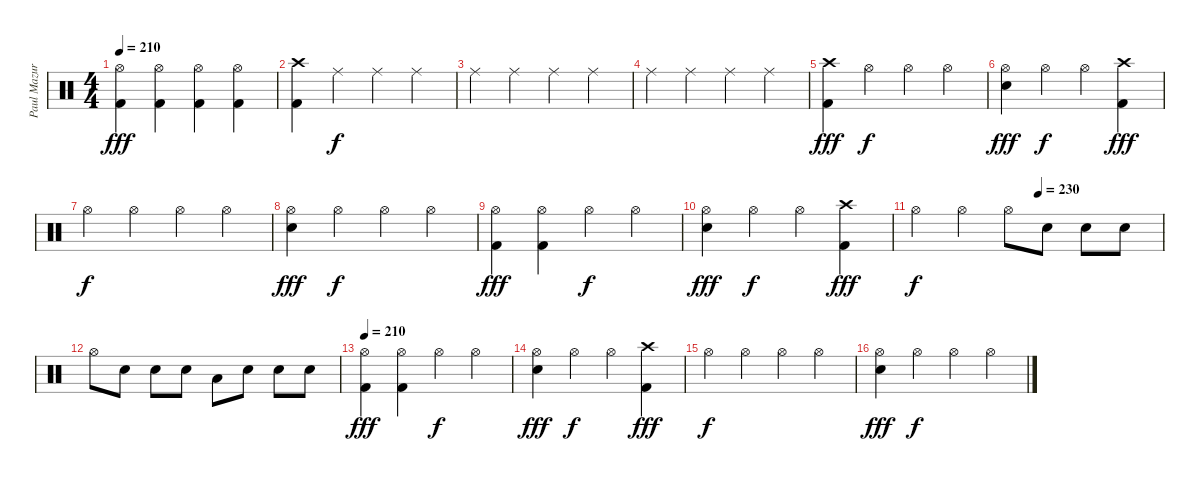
\track ("Paul Mazurkiewicz" "Paul Mazur") {instrument percussion}
\staff {score}
\articulation defaults
\ts (4 4)
\tempo 210
\clef neutral
\ks c
("Hi-Hat (open)" "Kick (hit) 2").4{dy fff} ("Hi-Hat (open)" "Kick (hit) 2").4 ("Hi-Hat (open)" "Kick (hit) 2").4 ("Hi-Hat (open)" "Kick (hit) 2").4 |
("Crash high (hit)" "Kick (hit) 2").4 "Ride (middle)".4{dy f} "Ride (middle)".4 "Ride (middle)".4 |
"Ride (middle)".4 "Ride (middle)".4 "Ride (middle)".4 "Ride (middle)".4 |
"Ride (middle)".4 "Ride (middle)".4 "Ride (middle)".4 "Ride (middle)".4 |
("Crash high (hit)" "Kick (hit) 2").4{dy fff} "Hi-Hat (open)".4{dy f} "Hi-Hat (open)".4 "Hi-Hat (open)".4 |
("Hi-Hat (open)" "Electric Snare (hit)").4{dy fff} "Hi-Hat (open)".4{dy f} "Hi-Hat (open)".4 ("Crash high (hit)" "Kick (hit) 2").4{dy fff} |
"Hi-Hat (open)".4{dy f} "Hi-Hat (open)".4 "Hi-Hat (open)".4 "Hi-Hat (open)".4 |
("Hi-Hat (open)" "Electric Snare (hit)").4{dy fff} "Hi-Hat (open)".4{dy f} "Hi-Hat (open)".4 "Hi-Hat (open)".4 |
("Hi-Hat (open)" "Kick (hit) 2").4{dy fff} ("Hi-Hat (open)" "Kick (hit) 2").4 "Hi-Hat (open)".4{dy f} "Hi-Hat (open)".4 |
("Hi-Hat (open)" "Electric Snare (hit)").4{dy fff} "Hi-Hat (open)".4{dy f} "Hi-Hat (open)".4 ("Crash high (hit)" "Kick (hit) 2").4{dy fff} |
\tempo (230 0.5)
"Hi-Hat (open)".4{dy f} "Hi-Hat (open)".4 "Hi-Hat (open)".8 "Snare (hit) 2".8 "Snare (hit) 2".8 "Snare (hit) 2".8 |
"Hi-Hat (open)".8 "Snare (hit) 2".8 "Snare (hit) 2".8 "Snare (hit) 2".8 "Low Tom (hit)".8 "Snare (hit) 2".8 "Snare (hit) 2".8 "Snare (hit) 2".8 |
\tempo 210
("Hi-Hat (open)" "Kick (hit) 2").4{dy fff} ("Hi-Hat (open)" "Kick (hit) 2").4 "Hi-Hat (open)".4{dy f} "Hi-Hat (open)".4 |
("Hi-Hat (open)" "Electric Snare (hit)").4{dy fff} "Hi-Hat (open)".4{dy f} "Hi-Hat (open)".4 ("Crash high (hit)" "Kick (hit) 2").4{dy fff} |
"Hi-Hat (open)".4{dy f} "Hi-Hat (open)".4 "Hi-Hat (open)".4 "Hi-Hat (open)".4 |
("Hi-Hat (open)" "Electric Snare (hit)").4{dy fff} "Hi-Hat (open)".4{dy f} "Hi-Hat (open)".4 "Hi-Hat (open)".4
